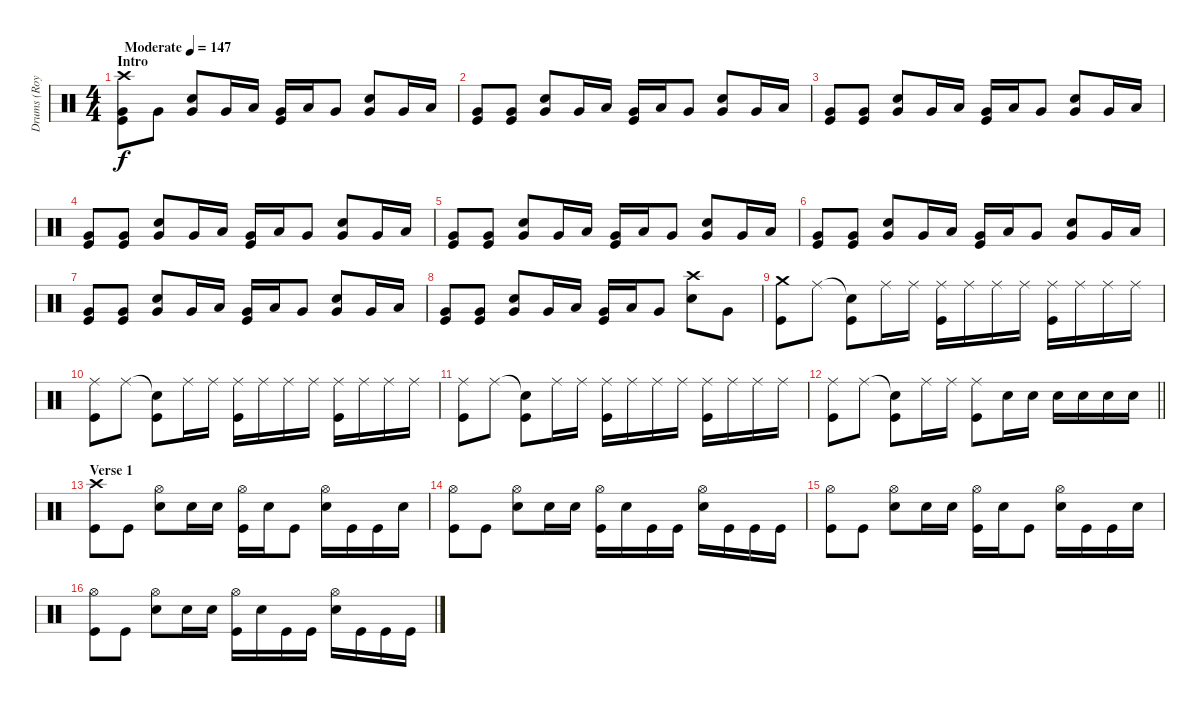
\track ("Drums (Roy)" "Drums (Roy") {instrument percussion}
\staff {score}
\articulation defaults
\ts (4 4)
\section ("" "Intro")
\tempo (147 "Moderate")
\clef neutral
\ks c
("Crash high (hit)" "Very Low Tom (hit)" "Kick (hit)").8{dy f} "Very Low Tom (hit)".8 ("Very Low Tom (hit)" "Snare (hit) 2").8 "Very Low Tom (hit)".16 "Low Floor Tom (hit)".16 ("Very Low Tom (hit)" "Kick (hit)").16 "Low Floor Tom (hit)".16 "Very Low Tom (hit)".8 ("Very Low Tom (hit)" "Snare (hit) 2").8 "Very Low Tom (hit)".16 "Low Floor Tom (hit)".16 |
("Very Low Tom (hit)" "Kick (hit)").8 ("Very Low Tom (hit)" "Kick (hit)").8 ("Very Low Tom (hit)" "Snare (hit) 2").8 "Very Low Tom (hit)".16 "Low Floor Tom (hit)".16 ("Very Low Tom (hit)" "Kick (hit)").16 "Low Floor Tom (hit)".16 "Very Low Tom (hit)".8 ("Very Low Tom (hit)" "Snare (hit) 2").8 "Very Low Tom (hit)".16 "Low Floor Tom (hit)".16 |
("Very Low Tom (hit)" "Kick (hit)").8 ("Very Low Tom (hit)" "Kick (hit)").8 ("Very Low Tom (hit)" "Snare (hit) 2").8 "Very Low Tom (hit)".16 "Low Floor Tom (hit)".16 ("Very Low Tom (hit)" "Kick (hit)").16 "Low Floor Tom (hit)".16 "Very Low Tom (hit)".8 ("Very Low Tom (hit)" "Snare (hit) 2").8 "Very Low Tom (hit)".16 "Low Floor Tom (hit)".16 |
("Very Low Tom (hit)" "Kick (hit)").8 ("Very Low Tom (hit)" "Kick (hit)").8 ("Very Low Tom (hit)" "Snare (hit) 2").8 "Very Low Tom (hit)".16 "Low Floor Tom (hit)".16 ("Very Low Tom (hit)" "Kick (hit)").16 "Low Floor Tom (hit)".16 "Very Low Tom (hit)".8 ("Very Low Tom (hit)" "Snare (hit) 2").8 "Very Low Tom (hit)".16 "Low Floor Tom (hit)".16 |
("Very Low Tom (hit)" "Kick (hit)").8 ("Very Low Tom (hit)" "Kick (hit)").8 ("Very Low Tom (hit)" "Snare (hit) 2").8 "Very Low Tom (hit)".16 "Low Floor Tom (hit)".16 ("Very Low Tom (hit)" "Kick (hit)").16 "Low Floor Tom (hit)".16 "Very Low Tom (hit)".8 ("Very Low Tom (hit)" "Snare (hit) 2").8 "Very Low Tom (hit)".16 "Low Floor Tom (hit)".16 |
("Very Low Tom (hit)" "Kick (hit)").8 ("Very Low Tom (hit)" "Kick (hit)").8 ("Very Low Tom (hit)" "Snare (hit) 2").8 "Very Low Tom (hit)".16 "Low Floor Tom (hit)".16 ("Very Low Tom (hit)" "Kick (hit)").16 "Low Floor Tom (hit)".16 "Very Low Tom (hit)".8 ("Very Low Tom (hit)" "Snare (hit) 2").8 "Very Low Tom (hit)".16 "Low Floor Tom (hit)".16 |
("Very Low Tom (hit)" "Kick (hit)").8 ("Very Low Tom (hit)" "Kick (hit)").8 ("Very Low Tom (hit)" "Snare (hit) 2").8 "Very Low Tom (hit)".16 "Low Floor Tom (hit)".16 ("Very Low Tom (hit)" "Kick (hit)").16 "Low Floor Tom (hit)".16 "Very Low Tom (hit)".8 ("Very Low Tom (hit)" "Snare (hit) 2").8 "Very Low Tom (hit)".16 "Low Floor Tom (hit)".16 |
("Very Low Tom (hit)" "Kick (hit)").8 ("Very Low Tom (hit)" "Kick (hit)").8 ("Very Low Tom (hit)" "Snare (hit) 2").8 "Very Low Tom (hit)".16 "Low Floor Tom (hit)".16 ("Very Low Tom (hit)" "Kick (hit)").16 "Low Floor Tom (hit)".16 "Very Low Tom (hit)".8 ("Crash high (hit)" "Snare (hit) 2").8 "Very Low Tom (hit)".8 |
("Crash medium (hit)" "Kick (hit)").8 "Ride (middle)".8 ("Snare (hit)"{t} "Kick (hit)").8 "Ride (middle)".16 "Ride (middle)".16 ("Ride (middle)" "Kick (hit)").16 "Ride (middle)".16 "Ride (middle)".16 "Ride (middle)".16 ("Ride (middle)" "Kick (hit)").16 "Ride (middle)".16 "Ride (middle)".16 "Ride (middle)".16 |
("Ride (middle)" "Kick (hit)").8 "Ride (middle)".8 ("Snare (hit)"{t} "Kick (hit)").8 "Ride (middle)".16 "Ride (middle)".16 ("Ride (middle)" "Kick (hit)").16 "Ride (middle)".16 "Ride (middle)".16 "Ride (middle)".16 ("Ride (middle)" "Kick (hit)").16 "Ride (middle)".16 "Ride (middle)".16 "Ride (middle)".16 |
("Ride (middle)" "Kick (hit)").8 "Ride (middle)".8 ("Snare (hit)"{t} "Kick (hit)").8 "Ride (middle)".16 "Ride (middle)".16 ("Ride (middle)" "Kick (hit)").16 "Ride (middle)".16 "Ride (middle)".16 "Ride (middle)".16 ("Ride (middle)" "Kick (hit)").16 "Ride (middle)".16 "Ride (middle)".16 "Ride (middle)".16 |
\barLineRight lightlight
("Ride (middle)" "Kick (hit)").8 "Ride (middle)".8 ("Snare (hit)"{t} "Kick (hit)").8 "Ride (middle)".16 "Ride (middle)".16 ("Ride (middle)" "Kick (hit)").8 "Snare (hit) 2".16 "Snare (hit) 2".16 "Snare (hit) 2".16 "Snare (hit) 2".16 "Snare (hit) 2".16 "Snare (hit) 2".16 |
\section ("" "Verse 1")
("Crash high (hit)" "Kick (hit)").8 "Kick (hit)".8 ("Hi-Hat (open)" "Snare (hit) 2").8 "Snare (hit) 2".16 "Snare (hit) 2".16 ("Hi-Hat (open)" "Kick (hit)").16 "Snare (hit) 2".16 "Kick (hit)".8 ("Hi-Hat (open)" "Snare (hit) 2").16 "Kick (hit)".16 "Kick (hit)".16 "Snare (hit) 2".16 |
("Hi-Hat (open)" "Kick (hit)").8 "Kick (hit)".8 ("Hi-Hat (open)" "Snare (hit) 2").8 "Snare (hit) 2".16 "Snare (hit) 2".16 ("Hi-Hat (open)" "Kick (hit)").16 "Snare (hit) 2".16 "Kick (hit)".16 "Kick (hit)".16 ("Hi-Hat (open)" "Snare (hit) 2").16 "Kick (hit)".16 "Kick (hit)".16 "Kick (hit)".16 |
("Hi-Hat (open)" "Kick (hit)").8 "Kick (hit)".8 ("Hi-Hat (open)" "Snare (hit) 2").8 "Snare (hit) 2".16 "Snare (hit) 2".16 ("Hi-Hat (open)" "Kick (hit)").16 "Snare (hit) 2".16 "Kick (hit)".8 ("Hi-Hat (open)" "Snare (hit) 2").16 "Kick (hit)".16 "Kick (hit)".16 "Snare (hit) 2".16 |
("Hi-Hat (open)" "Kick (hit)").8 "Kick (hit)".8 ("Hi-Hat (open)" "Snare (hit) 2").8 "Snare (hit) 2".16 "Snare (hit) 2".16 ("Hi-Hat (open)" "Kick (hit)").16 "Snare (hit) 2".16 "Kick (hit)".16 "Kick (hit)".16 ("Hi-Hat (open)" "Snare (hit) 2").16 "Kick (hit)".16 "Kick (hit)".16 "Kick (hit)".16
